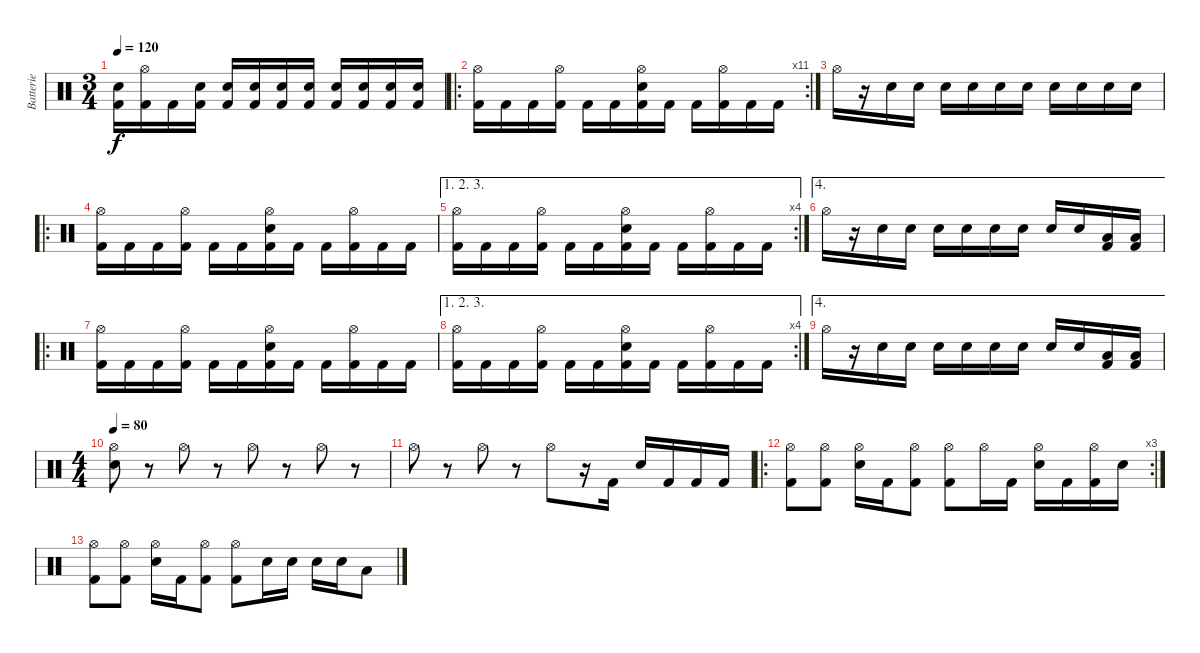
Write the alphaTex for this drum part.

\track ("Batterie" "Batterie") {instrument percussion}
\staff {score}
\articulation defaults
\ts (3 4)
\tempo 120
\clef neutral
\ks c
("Electric Snare (hit)" "Kick (hit) 2").16{dy f} ("Hi-Hat (open)" "Kick (hit) 2").16 "Kick (hit) 2".16 ("Electric Snare (hit)" "Kick (hit) 2").16 ("Electric Snare (hit)" "Kick (hit) 2").16 ("Electric Snare (hit)" "Kick (hit) 2").16 ("Electric Snare (hit)" "Kick (hit) 2").16 ("Electric Snare (hit)" "Kick (hit) 2").16 ("Electric Snare (hit)" "Kick (hit) 2").16 ("Electric Snare (hit)" "Kick (hit) 2").16 ("Electric Snare (hit)" "Kick (hit) 2").16 ("Electric Snare (hit)" "Kick (hit) 2").16 |
\ro
\rc 11
("Hi-Hat (open)" "Kick (hit) 2").16 "Kick (hit) 2".16 "Kick (hit) 2".16 ("Hi-Hat (open)" "Kick (hit) 2").16 "Kick (hit) 2".16 "Kick (hit) 2".16 ("Hi-Hat (open)" "Electric Snare (hit)" "Kick (hit) 2").16 "Kick (hit) 2".16 "Kick (hit) 2".16 ("Hi-Hat (open)" "Kick (hit) 2").16 "Kick (hit) 2".16 "Kick (hit) 2".16 |
"Hi-Hat (open)".16 r.16 "Electric Snare (hit)".16 "Electric Snare (hit)".16 "Electric Snare (hit)".16 "Electric Snare (hit)".16 "Electric Snare (hit)".16 "Electric Snare (hit)".16 "Electric Snare (hit)".16 "Electric Snare (hit)".16 "Electric Snare (hit)".16 "Electric Snare (hit)".16 |
\ro
("Hi-Hat (open)" "Kick (hit) 2").16 "Kick (hit) 2".16 "Kick (hit) 2".16 ("Hi-Hat (open)" "Kick (hit) 2").16 "Kick (hit) 2".16 "Kick (hit) 2".16 ("Hi-Hat (open)" "Electric Snare (hit)" "Kick (hit) 2").16 "Kick (hit) 2".16 "Kick (hit) 2".16 ("Hi-Hat (open)" "Kick (hit) 2").16 "Kick (hit) 2".16 "Kick (hit) 2".16 |
\ae (1 2 3)
\rc 4
("Hi-Hat (open)" "Kick (hit) 2").16 "Kick (hit) 2".16 "Kick (hit) 2".16 ("Hi-Hat (open)" "Kick (hit) 2").16 "Kick (hit) 2".16 "Kick (hit) 2".16 ("Hi-Hat (open)" "Electric Snare (hit)" "Kick (hit) 2").16 "Kick (hit) 2".16 "Kick (hit) 2".16 ("Hi-Hat (open)" "Kick (hit) 2").16 "Kick (hit) 2".16 "Kick (hit) 2".16 |
\ae 4 "Hi-Hat (open)".16
r.16 "Electric Snare (hit)".16 "Electric Snare (hit)".16 "Snare (hit) 2".16 "Snare (hit) 2".16 "Electric Snare (hit)".16 "Electric Snare (hit)".16 "Snare (hit) 2".16 "Snare (hit) 2".16 ("Low Tom (hit)" "Kick (hit) 2").16 ("Low Tom (hit)" "Kick (hit) 2").16 |
\ro
("Hi-Hat (open)" "Kick (hit) 2").16 "Kick (hit) 2".16 "Kick (hit) 2".16 ("Hi-Hat (open)" "Kick (hit) 2").16 "Kick (hit) 2".16 "Kick (hit) 2".16 ("Hi-Hat (open)" "Electric Snare (hit)" "Kick (hit) 2").16 "Kick (hit) 2".16 "Kick (hit) 2".16 ("Hi-Hat (open)" "Kick (hit) 2").16 "Kick (hit) 2".16 "Kick (hit) 2".16 |
\ae (1 2 3)
\rc 4
("Hi-Hat (open)" "Kick (hit) 2").16 "Kick (hit) 2".16 "Kick (hit) 2".16 ("Hi-Hat (open)" "Kick (hit) 2").16 "Kick (hit) 2".16 "Kick (hit) 2".16 ("Hi-Hat (open)" "Electric Snare (hit)" "Kick (hit) 2").16 "Kick (hit) 2".16 "Kick (hit) 2".16 ("Hi-Hat (open)" "Kick (hit) 2").16 "Kick (hit) 2".16 "Kick (hit) 2".16 |
\ae 4 "Hi-Hat (open)".16
r.16 "Electric Snare (hit)".16 "Electric Snare (hit)".16 "Snare (hit) 2".16 "Snare (hit) 2".16 "Electric Snare (hit)".16 "Electric Snare (hit)".16 "Snare (hit) 2".16 "Snare (hit) 2".16 ("Low Tom (hit)" "Kick (hit) 2").16 ("Low Tom (hit)" "Kick (hit) 2").16 |
\ts (4 4)
\tempo 80
("Hi-Hat (open)" "Electric Snare (hit)").8 r.8 "Hi-Hat (open)".8 r.8 "Hi-Hat (open)".8 r.8 "Hi-Hat (open)".8 r.8 |
"Hi-Hat (open)".8 r.8 "Hi-Hat (open)".8 r.8 "Hi-Hat (open)".8 r.16 "Kick (hit) 2".16 "Electric Snare (hit)".16 "Kick (hit) 2".16 "Kick (hit) 2".16 "Kick (hit) 2".16 |
\ro
\rc 3
("Hi-Hat (open)" "Kick (hit) 2").8 ("Hi-Hat (open)" "Kick (hit) 2").8 ("Hi-Hat (open)" "Electric Snare (hit)").16 "Kick (hit) 2".16 ("Hi-Hat (open)" "Kick (hit) 2").8 ("Hi-Hat (open)" "Kick (hit) 2").8 "Hi-Hat (open)".16 "Kick (hit) 2".16 ("Hi-Hat (open)" "Electric Snare (hit)").16 "Kick (hit) 2".16 ("Hi-Hat (open)" "Kick (hit) 2").16 "Electric Snare (hit)".16 |
("Hi-Hat (open)" "Kick (hit) 2").8 ("Hi-Hat (open)" "Kick (hit) 2").8 ("Hi-Hat (open)" "Electric Snare (hit)").16 "Kick (hit) 2".16 ("Hi-Hat (open)" "Kick (hit) 2").8 ("Hi-Hat (open)" "Kick (hit) 2").8 "Electric Snare (hit)".16 "Electric Snare (hit)".16 "Snare (hit) 2".16 "Snare (hit) 2".16 "Low Tom (hit)".8
